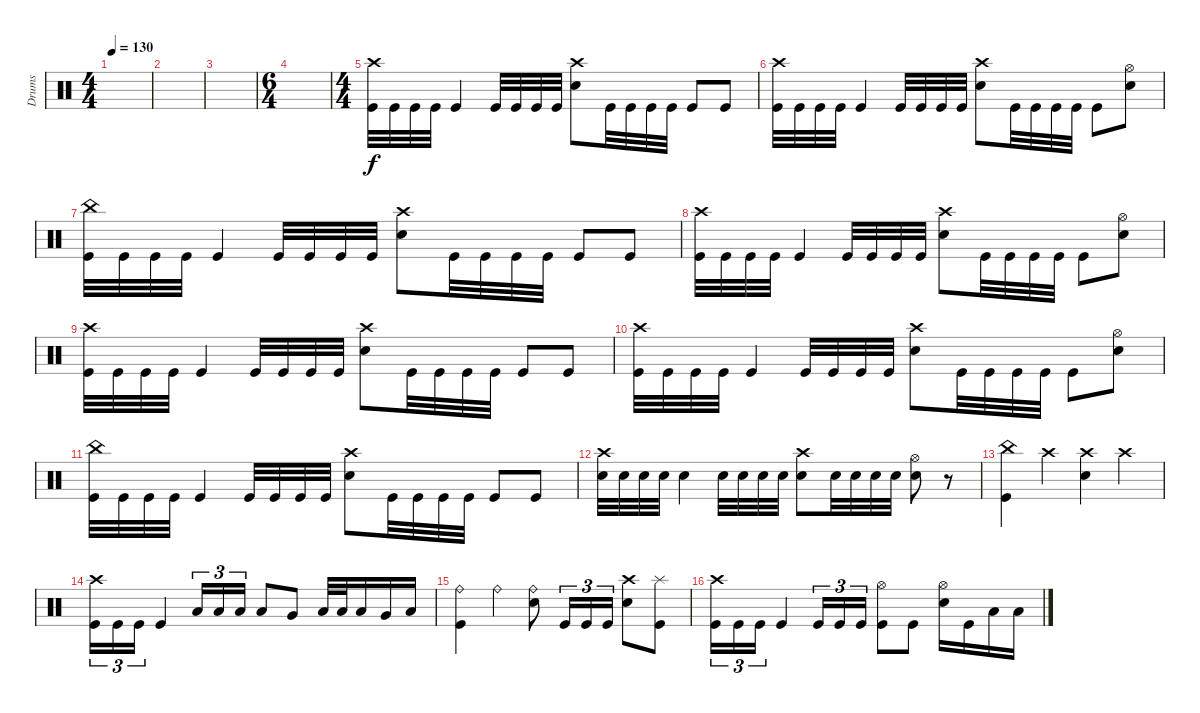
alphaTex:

\track ("Drums" "Drums") {instrument percussion}
\staff {score}
\articulation defaults
\ts (4 4)
\tempo 130
\clef neutral
\ks c
|
|
|
\ts (6 4)
|
\ts (4 4)
("Crash high (hit)" "Kick (hit)").32 "Kick (hit)".32 "Kick (hit)".32 "Kick (hit)".32 "Kick (hit)".4 "Kick (hit)".32 "Kick (hit)".32 "Kick (hit)".32 "Kick (hit)".32 ("Crash high (hit)" "Snare (hit) 2").8 "Kick (hit)".32 "Kick (hit)".32 "Kick (hit)".32 "Kick (hit)".32 "Kick (hit)".8 "Kick (hit)".8 |
("Crash high (hit)" "Kick (hit)").32 "Kick (hit)".32 "Kick (hit)".32 "Kick (hit)".32 "Kick (hit)".4 "Kick (hit)".32 "Kick (hit)".32 "Kick (hit)".32 "Kick (hit)".32 ("Crash high (hit)" "Snare (hit) 2").8 "Kick (hit)".32 "Kick (hit)".32 "Kick (hit)".32 "Kick (hit)".32 "Kick (hit)".8 ("Hi-Hat (open)" "Snare (hit) 2").8 |
("China (hit)" "Kick (hit)").32 "Kick (hit)".32 "Kick (hit)".32 "Kick (hit)".32 "Kick (hit)".4 "Kick (hit)".32 "Kick (hit)".32 "Kick (hit)".32 "Kick (hit)".32 ("Crash high (hit)" "Snare (hit) 2").8 "Kick (hit)".32 "Kick (hit)".32 "Kick (hit)".32 "Kick (hit)".32 "Kick (hit)".8 "Kick (hit)".8 |
("Crash high (hit)" "Kick (hit)").32 "Kick (hit)".32 "Kick (hit)".32 "Kick (hit)".32 "Kick (hit)".4 "Kick (hit)".32 "Kick (hit)".32 "Kick (hit)".32 "Kick (hit)".32 ("Crash high (hit)" "Snare (hit) 2").8 "Kick (hit)".32 "Kick (hit)".32 "Kick (hit)".32 "Kick (hit)".32 "Kick (hit)".8 ("Hi-Hat (open)" "Snare (hit) 2").8 |
("Crash high (hit)" "Kick (hit)").32 "Kick (hit)".32 "Kick (hit)".32 "Kick (hit)".32 "Kick (hit)".4 "Kick (hit)".32 "Kick (hit)".32 "Kick (hit)".32 "Kick (hit)".32 ("Crash high (hit)" "Snare (hit) 2").8 "Kick (hit)".32 "Kick (hit)".32 "Kick (hit)".32 "Kick (hit)".32 "Kick (hit)".8 "Kick (hit)".8 |
("Crash high (hit)" "Kick (hit)").32 "Kick (hit)".32 "Kick (hit)".32 "Kick (hit)".32 "Kick (hit)".4 "Kick (hit)".32 "Kick (hit)".32 "Kick (hit)".32 "Kick (hit)".32 ("Crash high (hit)" "Snare (hit) 2").8 "Kick (hit)".32 "Kick (hit)".32 "Kick (hit)".32 "Kick (hit)".32 "Kick (hit)".8 ("Hi-Hat (open)" "Snare (hit) 2").8 |
("China (hit)" "Kick (hit)").32 "Kick (hit)".32 "Kick (hit)".32 "Kick (hit)".32 "Kick (hit)".4 "Kick (hit)".32 "Kick (hit)".32 "Kick (hit)".32 "Kick (hit)".32 ("Crash high (hit)" "Snare (hit) 2").8 "Kick (hit)".32 "Kick (hit)".32 "Kick (hit)".32 "Kick (hit)".32 "Kick (hit)".8 "Kick (hit)".8 |
("Crash high (hit)" "Snare (hit) 2").32 "Snare (hit) 2".32 "Snare (hit) 2".32 "Snare (hit) 2".32 "Snare (hit) 2".4 "Snare (hit) 2".32 "Snare (hit) 2".32 "Snare (hit) 2".32 "Snare (hit) 2".32 ("Crash high (hit)" "Snare (hit) 2").8 "Snare (hit) 2".32 "Snare (hit) 2".32 "Snare (hit) 2".32 "Snare (hit) 2".32 ("Hi-Hat (open)" "Snare (hit) 2").8 r.8 |
("China (hit)" "Kick (hit)").4 "Crash high (hit)".4 ("Crash high (hit)" "Snare (hit) 2").4 "Crash high (hit)".4 |
("Crash high (hit)" "Kick (hit)").16{tu (3 2)} "Kick (hit)".16{tu (3 2)} "Kick (hit)".16{tu (3 2)} "Kick (hit)".4 "Low Tom (hit)".16{tu (3 2)} "Low Tom (hit)".16{tu (3 2)} "Low Tom (hit)".16{tu (3 2)} "Low Tom (hit)".8 "Very Low Tom (hit)".8 "Low Tom (hit)".32 "Low Tom (hit)".32 "Low Tom (hit)".16 "Very Low Tom (hit)".16 "Low Floor Tom (hit)".16 |
("Ride (bell)" "Kick (hit)").4 "Ride (bell)".4 ("Ride (bell)" "Snare (hit) 2").8 "Kick (hit)".16{tu (3 2)} "Kick (hit)".16{tu (3 2)} "Kick (hit)".16{tu (3 2)} ("Crash high (hit)" "Snare (hit) 2").8 ("Splash (hit)" "Kick (hit)").8 |
("Crash high (hit)" "Kick (hit)").16{tu (3 2)} "Kick (hit)".16{tu (3 2)} "Kick (hit)".16{tu (3 2)} "Kick (hit)".4 "Kick (hit)".16{tu (3 2)} "Kick (hit)".16{tu (3 2)} "Kick (hit)".16{tu (3 2)} ("Hi-Hat (open)" "Kick (hit)").8 "Kick (hit)".8 ("Hi-Hat (open)" "Snare (hit) 2").16 "Kick (hit)".16 "Low Tom (hit)".16 "Low Tom (hit)".16
